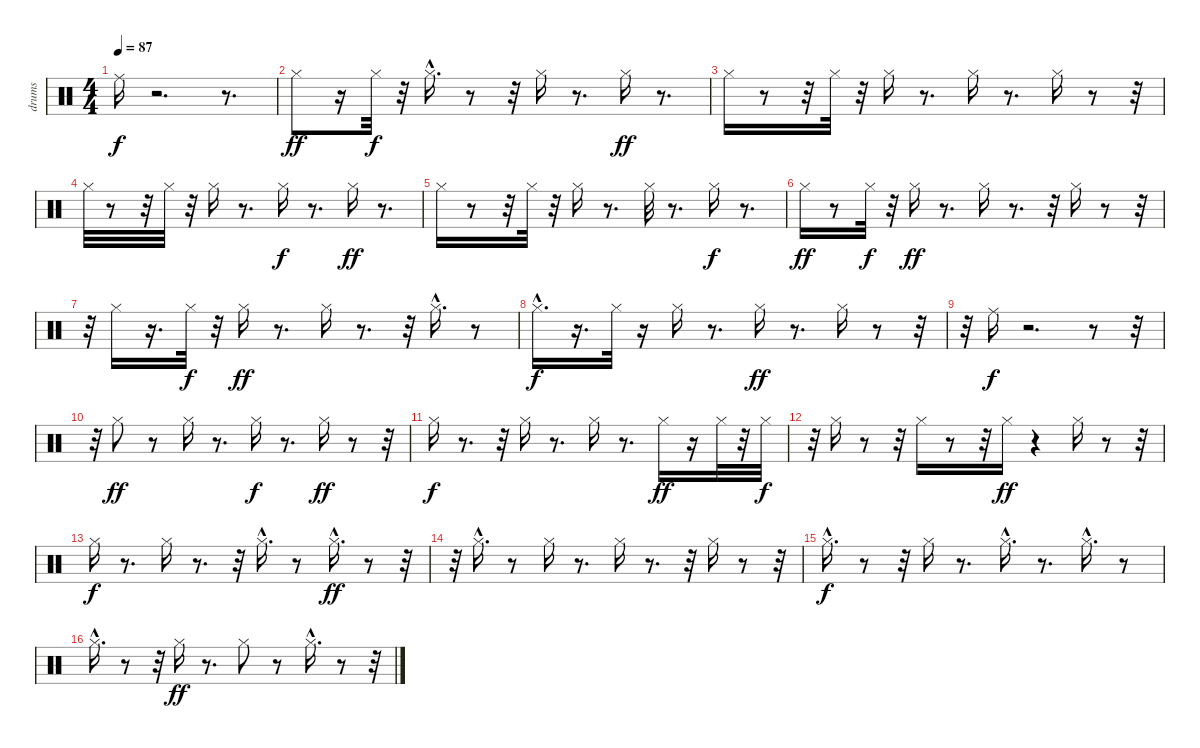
\track ("drums" "drums") {instrument percussion}
\staff {score}
\articulation defaults
\ts (4 4)
\tempo 87
\clef neutral
\ks c "Ride (middle)".16{dy f}
r.2{d} r.8{d} |
"Hi-Hat (closed)".8{dy ff} r.16 "Hi-Hat (closed)".32{dy f} r.32 "Hi-Hat (closed)"{hac}.16{d} r.8 r.32 "Hi-Hat (closed)".16 r.8{d} "Hi-Hat (closed)".16{dy ff} r.8{d} |
"Hi-Hat (closed)".16 r.8 r.32 "Hi-Hat (closed)".32 r.32 "Hi-Hat (closed)".16 r.8{d} "Hi-Hat (closed)".16 r.8{d} "Hi-Hat (closed)".16 r.8 r.32 |
"Hi-Hat (closed)".32 r.8 r.32 "Hi-Hat (closed)".32 r.32 "Hi-Hat (closed)".16 r.8{d} "Hi-Hat (closed)".16{dy f} r.8{d} "Hi-Hat (closed)".16{dy ff} r.8{d} |
"Hi-Hat (closed)".16 r.8 r.32 "Hi-Hat (closed)".32 r.32 "Hi-Hat (closed)".16 r.8{d} "Hi-Hat (closed)".32 r.8{d} "Hi-Hat (closed)".16{dy f} r.8{d} |
"Hi-Hat (closed)".16{dy ff} r.8 "Hi-Hat (closed)".32{dy f} r.32 "Hi-Hat (closed)".16{dy ff} r.8{d} "Hi-Hat (closed)".16 r.8{d} r.32 "Hi-Hat (closed)".16 r.8 r.32 |
r.32 "Hi-Hat (closed)".16 r.16{d} "Hi-Hat (closed)".32{dy f} r.32 "Hi-Hat (closed)".16{dy ff} r.8{d} "Hi-Hat (closed)".16 r.8{d} r.32 "Hi-Hat (closed)"{hac}.16{d} r.8 |
"Hi-Hat (closed)"{hac}.16{d dy f} r.16{d} "Hi-Hat (closed)".32 r.16 "Hi-Hat (closed)".16 r.8{d} "Hi-Hat (closed)".16{dy ff} r.8{d} "Hi-Hat (closed)".16 r.8 r.32 |
r.32 "Ride (middle)".16{dy f} r.2{d} r.8 r.32 |
r.32 "Hi-Hat (closed)".8{dy ff} r.8 "Hi-Hat (closed)".16 r.8{d} "Hi-Hat (closed)".16{dy f} r.8{d} "Hi-Hat (closed)".16{dy ff} r.8 r.32 |
"Hi-Hat (closed)".16{dy f} r.8{d} r.32 "Hi-Hat (closed)".16 r.8{d} "Hi-Hat (closed)".16 r.8{d} "Hi-Hat (closed)".16{dy ff} r.16 "Hi-Hat (closed)".32 r.32 "Hi-Hat (closed)".32{dy f} |
r.32 "Hi-Hat (closed)".16 r.8 r.32 "Hi-Hat (closed)".16 r.8 r.32 "Hi-Hat (closed)".16{dy ff} r.4 "Hi-Hat (closed)".16 r.8 r.32 |
"Hi-Hat (closed)".16{dy f} r.8{d} "Hi-Hat (closed)".16 r.8{d} r.32 "Hi-Hat (closed)"{hac}.16{d} r.8 "Hi-Hat (closed)"{hac}.16{d dy ff} r.8 r.32 |
r.32 "Hi-Hat (closed)"{hac}.16{d} r.8 "Hi-Hat (closed)".16 r.8{d} "Hi-Hat (closed)".16 r.8{d} r.32 "Hi-Hat (closed)".16 r.8 r.32 |
"Hi-Hat (closed)"{hac}.16{d dy f} r.8 r.32 "Hi-Hat (closed)".16 r.8{d} "Hi-Hat (closed)"{hac}.16{d} r.8{d} "Hi-Hat (closed)"{hac}.16{d} r.8 |
"Hi-Hat (closed)"{hac}.16{d} r.8 r.32 "Hi-Hat (closed)".16{dy ff} r.8{d} "Hi-Hat (closed)".8 r.8 "Hi-Hat (closed)"{hac}.16{d} r.8 r.32
